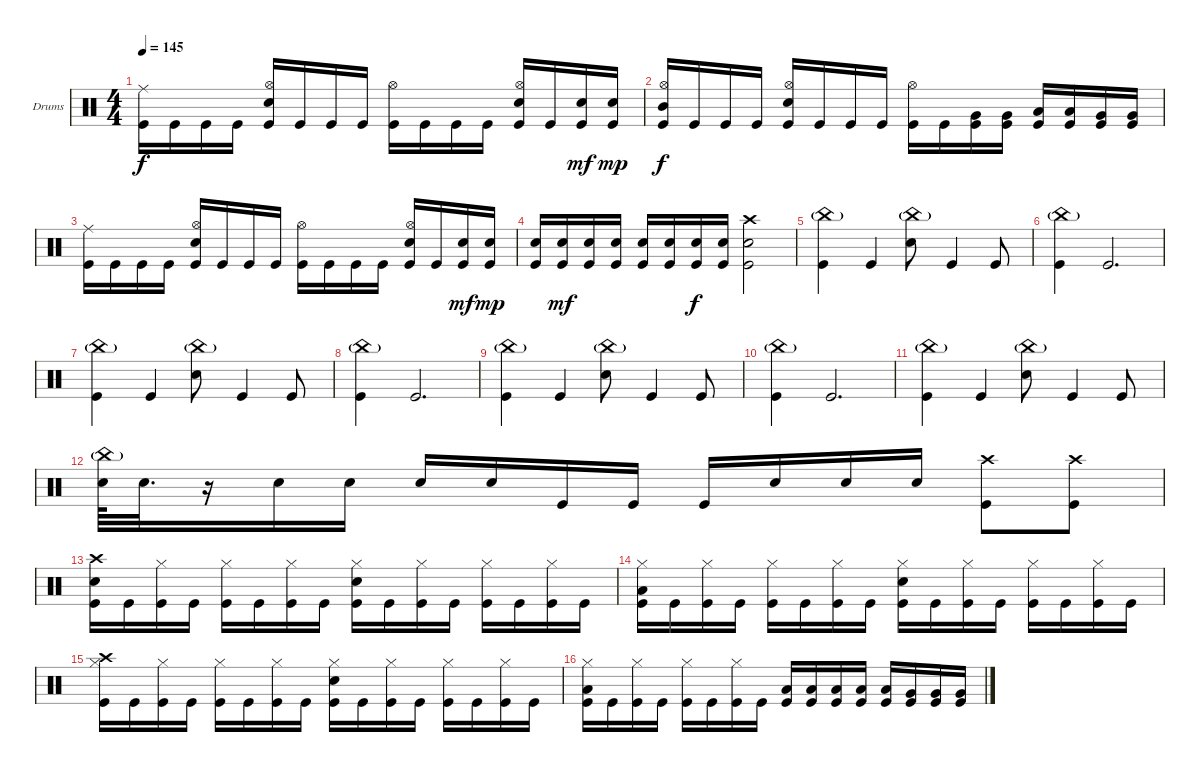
\bracketExtendMode groupsimilarinstruments
\firstSystemTrackNameOrientation horizontal
\otherSystemsTrackNameOrientation horizontal
\track ("Drumkit" "Drums") {instrument percussion}
\staff {score}
\articulation defaults
\ts (4 4)
\tempo 145
\clef neutral
\ks c
("Ride (middle)" "Kick (hit)").16{dy f} "Kick (hit)".16 "Kick (hit)".16 "Kick (hit)".16 ("Hi-Hat (open)" "Snare (hit) 2" "Kick (hit)").16 "Kick (hit)".16 "Kick (hit)".16 "Kick (hit)".16 ("Hi-Hat (open)" "Kick (hit)").16 "Kick (hit)".16 "Kick (hit)".16 "Kick (hit)".16 ("Hi-Hat (open)" "Snare (hit) 2" "Kick (hit)").16 "Kick (hit)".16 ("Snare (hit) 2" "Kick (hit)").16{dy mf} ("Snare (hit) 2" "Kick (hit)").16{dy mp} |
("Hi-Hat (open)" "Mid Tom (hit)" "Kick (hit)").16{dy f} "Kick (hit)".16 "Kick (hit)".16 "Kick (hit)".16 ("Hi-Hat (open)" "Snare (hit) 2" "Kick (hit)").16 "Kick (hit)".16 "Kick (hit)".16 "Kick (hit)".16 ("Hi-Hat (open)" "Kick (hit)").16 "Kick (hit)".16 ("Very Low Tom (hit)" "Kick (hit)").16 ("Very Low Tom (hit)" "Kick (hit)").16 ("Low Tom (hit)" "Kick (hit)").16 ("Low Tom (hit)" "Kick (hit)").16 ("Very Low Tom (hit)" "Kick (hit)").16 ("Very Low Tom (hit)" "Kick (hit)").16 |
("Ride (middle)" "Kick (hit)").16 "Kick (hit)".16 "Kick (hit)".16 "Kick (hit)".16 ("Hi-Hat (open)" "Snare (hit) 2" "Kick (hit)").16 "Kick (hit)".16 "Kick (hit)".16 "Kick (hit)".16 ("Hi-Hat (open)" "Kick (hit)").16 "Kick (hit)".16 "Kick (hit)".16 "Kick (hit)".16 ("Hi-Hat (open)" "Snare (hit) 2" "Kick (hit)").16 "Kick (hit)".16 ("Snare (hit) 2" "Kick (hit)").16{dy mf} ("Snare (hit) 2" "Kick (hit)").16{dy mp} |
("Snare (hit) 2" "Kick (hit)").16 ("Snare (hit) 2" "Kick (hit)").16{dy mf} ("Snare (hit) 2" "Kick (hit)").16 ("Snare (hit) 2" "Kick (hit)").16 ("Snare (hit) 2" "Kick (hit)").16 ("Snare (hit) 2" "Kick (hit)").16 ("Snare (hit) 2" "Kick (hit)").16{dy f} ("Snare (hit) 2" "Kick (hit)").16 ("Crash high (hit)" "Snare (hit) 2" "Kick (hit)").2 |
("China (hit)"{g} "Kick (hit)").4 "Kick (hit)".4 ("China (hit)"{g} "Snare (hit) 2").8 "Kick (hit)".4 "Kick (hit)".8 |
("China (hit)"{g} "Kick (hit)").4 "Kick (hit)".2{d} |
("China (hit)"{g} "Kick (hit)").4 "Kick (hit)".4 ("China (hit)"{g} "Snare (hit) 2").8 "Kick (hit)".4 "Kick (hit)".8 |
("China (hit)"{g} "Kick (hit)").4 "Kick (hit)".2{d} |
("China (hit)"{g} "Kick (hit)").4 "Kick (hit)".4 ("China (hit)"{g} "Snare (hit) 2").8 "Kick (hit)".4 "Kick (hit)".8 |
("China (hit)"{g} "Kick (hit)").4 "Kick (hit)".2{d} |
("China (hit)"{g} "Kick (hit)").4 "Kick (hit)".4 ("China (hit)"{g} "Snare (hit) 2").8 "Kick (hit)".4 "Kick (hit)".8 |
("China (hit)"{g} "Snare (hit) 2").64 "Snare (hit) 2".32{d} r.16 "Snare (hit) 2".16 "Snare (hit) 2".16 "Snare (hit) 2".16 "Snare (hit) 2".16 "Kick (hit)".16 "Kick (hit)".16 "Kick (hit)".16 "Snare (hit) 2".16 "Snare (hit) 2".16 "Snare (hit) 2".16 ("Crash high (hit)" "Kick (hit)").8 ("Crash high (hit)" "Kick (hit)").8 |
("Crash high (hit)" "Snare (hit) 2" "Kick (hit)").16 "Kick (hit)".16 ("Hi-Hat (closed)" "Kick (hit)").16 "Kick (hit)".16 ("Hi-Hat (closed)" "Kick (hit)").16 "Kick (hit)".16 ("Hi-Hat (closed)" "Kick (hit)").16 "Kick (hit)".16 ("Hi-Hat (closed)" "Snare (hit) 2" "Kick (hit)").16 "Kick (hit)".16 ("Hi-Hat (closed)" "Kick (hit)").16 "Kick (hit)".16 ("Hi-Hat (closed)" "Kick (hit)").16 "Kick (hit)".16 ("Hi-Hat (closed)" "Kick (hit)").16 "Kick (hit)".16 |
("Hi-Hat (closed)" "Low Tom (hit)" "Kick (hit)").16 "Kick (hit)".16 ("Hi-Hat (closed)" "Kick (hit)").16 "Kick (hit)".16 ("Hi-Hat (closed)" "Kick (hit)").16 "Kick (hit)".16 ("Hi-Hat (closed)" "Kick (hit)").16 "Kick (hit)".16 ("Hi-Hat (closed)" "Snare (hit) 2" "Kick (hit)").16 "Kick (hit)".16 ("Hi-Hat (closed)" "Kick (hit)").16 "Kick (hit)".16 ("Hi-Hat (closed)" "Kick (hit)").16 "Kick (hit)".16 ("Hi-Hat (closed)" "Kick (hit)").16 "Kick (hit)".16 |
("Crash high (hit)" "Hi-Hat (closed)" "Kick (hit)").16 "Kick (hit)".16 ("Hi-Hat (closed)" "Kick (hit)").16 "Kick (hit)".16 ("Hi-Hat (closed)" "Kick (hit)").16 "Kick (hit)".16 ("Hi-Hat (closed)" "Kick (hit)").16 "Kick (hit)".16 ("Hi-Hat (closed)" "Snare (hit) 2" "Kick (hit)").16 "Kick (hit)".16 ("Hi-Hat (closed)" "Kick (hit)").16 "Kick (hit)".16 ("Hi-Hat (closed)" "Kick (hit)").16 "Kick (hit)".16 ("Hi-Hat (closed)" "Kick (hit)").16 "Kick (hit)".16 |
("Hi-Hat (closed)" "Low Tom (hit)" "Kick (hit)").16 "Kick (hit)".16 ("Hi-Hat (closed)" "Kick (hit)").16 "Kick (hit)".16 ("Hi-Hat (closed)" "Kick (hit)").16 "Kick (hit)".16 ("Hi-Hat (closed)" "Kick (hit)").16 "Kick (hit)".16 ("Low Tom (hit)" "Kick (hit)").16 ("Low Tom (hit)" "Kick (hit)").16 ("Low Tom (hit)" "Kick (hit)").16 ("Low Tom (hit)" "Kick (hit)").16 ("Low Tom (hit)" "Kick (hit)").16 ("Very Low Tom (hit)" "Kick (hit)").16 ("Very Low Tom (hit)" "Kick (hit)").16 ("Very Low Tom (hit)" "Kick (hit)").16
